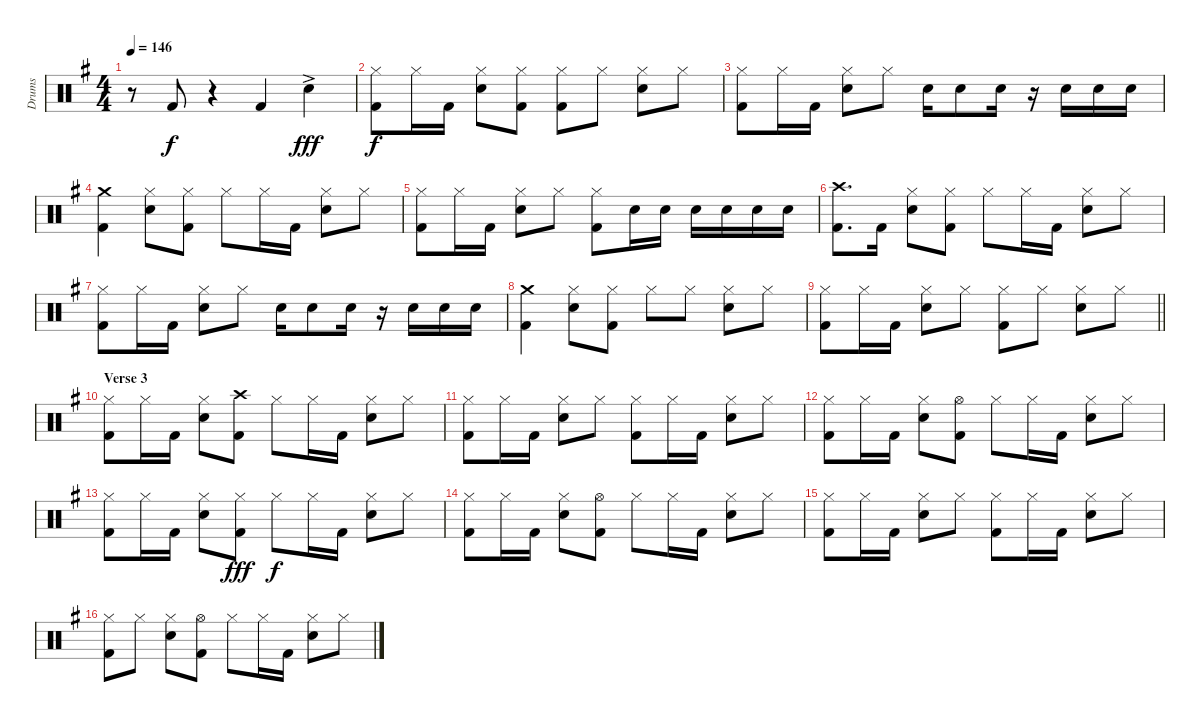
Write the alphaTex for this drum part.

\track ("Drums" "Drums") {instrument percussion}
\staff {score}
\articulation defaults
\ts (4 4)
\tempo 146
\clef neutral
\ks g
r.8{dy f} "Kick (hit) 2".8 r.4 "Kick (hit) 2".4 "Snare (hit) 2"{ac}.4{dy fff} |
("Kick (hit) 2" "Hi-Hat (closed)").8{dy f} "Hi-Hat (closed)".16 "Kick (hit) 2".16 ("Snare (hit) 2" "Hi-Hat (closed)").8 ("Kick (hit) 2" "Hi-Hat (closed)").8 ("Kick (hit) 2" "Hi-Hat (closed)").8 "Hi-Hat (closed)".8 ("Snare (hit) 2" "Hi-Hat (closed)").8 "Hi-Hat (closed)".8 |
("Kick (hit) 2" "Hi-Hat (closed)").8 "Hi-Hat (closed)".16 "Kick (hit) 2".16 ("Snare (hit) 2" "Hi-Hat (closed)").8 "Hi-Hat (closed)".8 "Snare (hit) 2".16 "Snare (hit) 2".8 "Snare (hit) 2".16 r.16 "Snare (hit) 2".16 "Snare (hit) 2".16 "Snare (hit) 2".16 |
("Kick (hit) 2" "Crash medium (hit)").4 ("Snare (hit) 2" "Hi-Hat (closed)").8 ("Kick (hit) 2" "Hi-Hat (closed)").8 "Hi-Hat (closed)".8 "Hi-Hat (closed)".16 "Kick (hit) 2".16 ("Snare (hit) 2" "Hi-Hat (closed)").8 "Hi-Hat (closed)".8 |
("Kick (hit) 2" "Hi-Hat (closed)").8 "Hi-Hat (closed)".16 "Kick (hit) 2".16 ("Snare (hit) 2" "Hi-Hat (closed)").8 "Hi-Hat (closed)".8 ("Kick (hit) 2" "Hi-Hat (closed)").8 "Snare (hit) 2".16 "Snare (hit) 2".16 "Snare (hit) 2".16 "Snare (hit) 2".16 "Snare (hit) 2".16 "Snare (hit) 2".16 |
("Kick (hit) 2" "Crash high (hit)").8{d} "Kick (hit) 2".16 ("Snare (hit) 2" "Hi-Hat (closed)").8 ("Kick (hit) 2" "Hi-Hat (closed)").8 "Hi-Hat (closed)".8 "Hi-Hat (closed)".16 "Kick (hit) 2".16 ("Snare (hit) 2" "Hi-Hat (closed)").8 "Hi-Hat (closed)".8 |
("Kick (hit) 2" "Hi-Hat (closed)").8 "Hi-Hat (closed)".16 "Kick (hit) 2".16 ("Snare (hit) 2" "Hi-Hat (closed)").8 "Hi-Hat (closed)".8 "Snare (hit) 2".16 "Snare (hit) 2".8 "Snare (hit) 2".16 r.16 "Snare (hit) 2".16 "Snare (hit) 2".16 "Snare (hit) 2".16 |
("Kick (hit) 2" "Crash medium (hit)").4 ("Snare (hit) 2" "Hi-Hat (closed)").8 ("Kick (hit) 2" "Hi-Hat (closed)").8 "Hi-Hat (closed)".8 "Hi-Hat (closed)".8 ("Snare (hit) 2" "Hi-Hat (closed)").8 "Hi-Hat (closed)".8 |
\barLineRight lightlight
("Kick (hit) 2" "Hi-Hat (closed)").8 "Hi-Hat (closed)".16 "Kick (hit) 2".16 ("Snare (hit) 2" "Hi-Hat (closed)").8 "Hi-Hat (closed)".8 ("Kick (hit) 2" "Hi-Hat (closed)").8 "Hi-Hat (closed)".8 ("Snare (hit) 2" "Hi-Hat (closed)").8 "Hi-Hat (closed)".8 |
\section ("" "Verse 3")
("Kick (hit) 2" "Hi-Hat (closed)").8 "Hi-Hat (closed)".16 "Kick (hit) 2".16 ("Snare (hit) 2" "Hi-Hat (closed)").8 ("Kick (hit) 2" "Crash high (hit)").8 "Hi-Hat (closed)".8 "Hi-Hat (closed)".16 "Kick (hit) 2".16 ("Snare (hit) 2" "Hi-Hat (closed)").8 "Hi-Hat (closed)".8 |
("Kick (hit) 2" "Hi-Hat (closed)").8 "Hi-Hat (closed)".16 "Kick (hit) 2".16 ("Snare (hit) 2" "Hi-Hat (closed)").8 "Hi-Hat (closed)".8 ("Kick (hit) 2" "Hi-Hat (closed)").8 "Hi-Hat (closed)".16 "Kick (hit) 2".16 ("Snare (hit) 2" "Hi-Hat (closed)").8 "Hi-Hat (closed)".8 |
("Kick (hit) 2" "Hi-Hat (closed)").8 "Hi-Hat (closed)".16 "Kick (hit) 2".16 ("Snare (hit) 2" "Hi-Hat (closed)").8 ("Kick (hit) 2" "Hi-Hat (open)").8 "Hi-Hat (closed)".8 "Hi-Hat (closed)".16 "Kick (hit) 2".16 ("Snare (hit) 2" "Hi-Hat (closed)").8 "Hi-Hat (closed)".8 |
("Kick (hit) 2" "Hi-Hat (closed)").8 "Hi-Hat (closed)".16 "Kick (hit) 2".16 ("Snare (hit) 2" "Hi-Hat (closed)").8 ("Kick (hit) 2" "Hi-Hat (closed)").8{dy fff} "Hi-Hat (closed)".8{dy f} "Hi-Hat (closed)".16 "Kick (hit) 2".16 ("Snare (hit) 2" "Hi-Hat (closed)").8 "Hi-Hat (closed)".8 |
("Kick (hit) 2" "Hi-Hat (closed)").8 "Hi-Hat (closed)".16 "Kick (hit) 2".16 ("Snare (hit) 2" "Hi-Hat (closed)").8 ("Kick (hit) 2" "Hi-Hat (open)").8 "Hi-Hat (closed)".8 "Hi-Hat (closed)".16 "Kick (hit) 2".16 ("Snare (hit) 2" "Hi-Hat (closed)").8 "Hi-Hat (closed)".8 |
("Kick (hit) 2" "Hi-Hat (closed)").8 "Hi-Hat (closed)".16 "Kick (hit) 2".16 ("Snare (hit) 2" "Hi-Hat (closed)").8 "Hi-Hat (closed)".8 ("Kick (hit) 2" "Hi-Hat (closed)").8 "Hi-Hat (closed)".16 "Kick (hit) 2".16 ("Snare (hit) 2" "Hi-Hat (closed)").8 "Hi-Hat (closed)".8 |
("Kick (hit) 2" "Hi-Hat (closed)").8 "Hi-Hat (closed)".8 ("Snare (hit) 2" "Hi-Hat (closed)").8 ("Kick (hit) 2" "Hi-Hat (open)").8 "Hi-Hat (closed)".8 "Hi-Hat (closed)".16 "Kick (hit) 2".16 ("Snare (hit) 2" "Hi-Hat (closed)").8 "Hi-Hat (closed)".8
